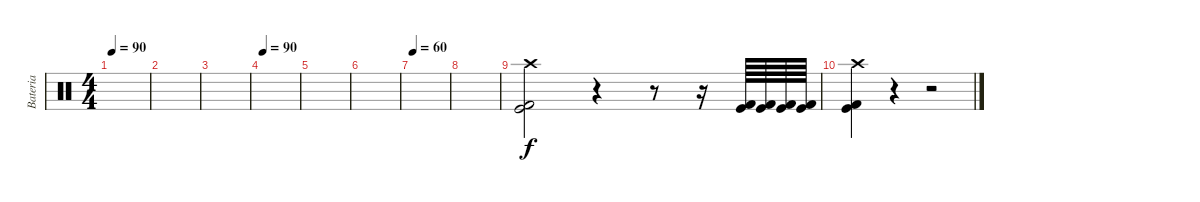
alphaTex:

\track ("Bateria" "Bateria") {instrument percussion}
\staff {score}
\articulation defaults
\ts (4 4)
\tempo 90
\clef neutral
\ks c
|
|
|
\tempo 90
|
|
|
\tempo 60
|
|
("Kick (hit) 2" "Kick (hit)" "Crash high (hit)").2 r.4 r.8 r.16 ("Kick (hit)" "Kick (hit) 2").64 ("Kick (hit)" "Kick (hit) 2").64 ("Kick (hit) 2" "Kick (hit)").64 ("Kick (hit) 2" "Kick (hit)").64 |
("Kick (hit) 2" "Kick (hit)" "Crash high (hit)").4 r.4 r.2
